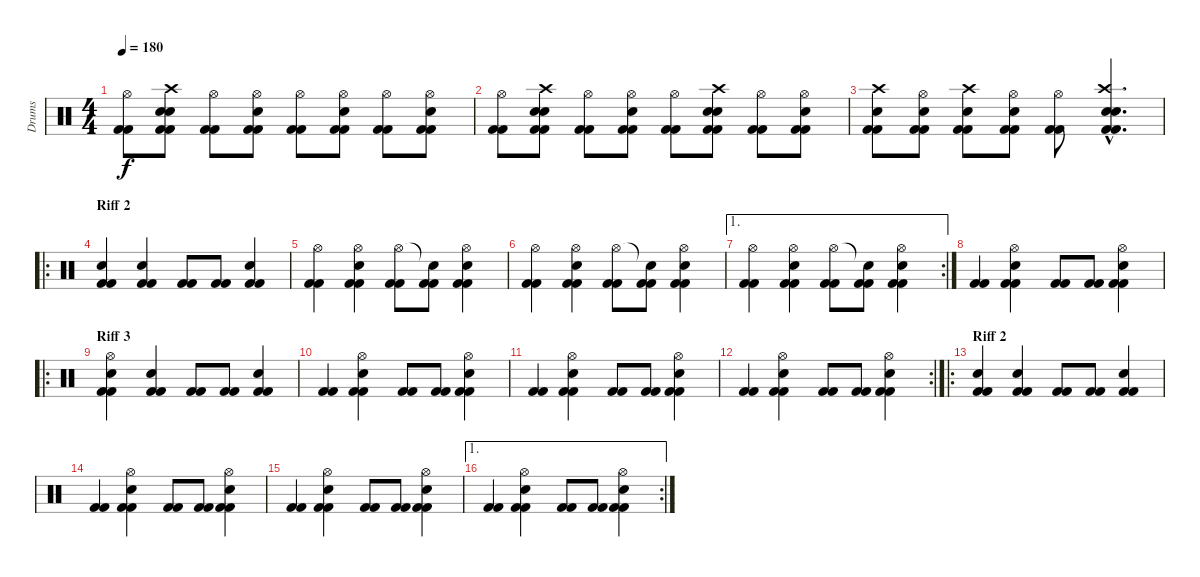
\track ("Drums" "Drums") {instrument percussion}
\staff {score}
\articulation defaults
\ts (4 4)
\tempo 180
\clef neutral
\ks c
("Hi-Hat (open)" "Kick (hit) 2" "Kick (hit) 2").8{dy f} ("Crash high (hit)" "Snare (hit) 2" "Snare (hit)" "Kick (hit) 2" "Kick (hit) 2").8 ("Hi-Hat (open)" "Kick (hit) 2" "Kick (hit) 2").8 ("Hi-Hat (open)" "Snare (hit) 2" "Kick (hit) 2" "Kick (hit) 2").8 ("Hi-Hat (open)" "Kick (hit) 2" "Kick (hit) 2").8 ("Hi-Hat (open)" "Snare (hit) 2" "Kick (hit) 2" "Kick (hit) 2").8 ("Hi-Hat (open)" "Kick (hit) 2" "Kick (hit) 2").8 ("Hi-Hat (open)" "Snare (hit) 2" "Kick (hit) 2" "Kick (hit) 2").8 |
("Hi-Hat (open)" "Kick (hit) 2" "Kick (hit) 2").8 ("Crash high (hit)" "Snare (hit) 2" "Snare (hit)" "Kick (hit) 2" "Kick (hit) 2").8 ("Hi-Hat (open)" "Kick (hit) 2" "Kick (hit) 2").8 ("Hi-Hat (open)" "Snare (hit) 2" "Kick (hit) 2" "Kick (hit) 2").8 ("Hi-Hat (open)" "Kick (hit) 2" "Kick (hit) 2").8 ("Crash high (hit)" "Snare (hit) 2" "Snare (hit)" "Kick (hit) 2" "Kick (hit) 2").8 ("Hi-Hat (open)" "Kick (hit) 2" "Kick (hit) 2").8 ("Hi-Hat (open)" "Snare (hit) 2" "Kick (hit) 2" "Kick (hit) 2").8 |
("Crash high (hit)" "Snare (hit)" "Kick (hit) 2" "Kick (hit) 2").8 ("Hi-Hat (open)" "Snare (hit) 2" "Kick (hit) 2" "Kick (hit) 2").8 ("Crash high (hit)" "Snare (hit)" "Kick (hit) 2" "Kick (hit) 2").8 ("Hi-Hat (open)" "Snare (hit) 2" "Kick (hit) 2" "Kick (hit) 2").8 ("Hi-Hat (open)" "Kick (hit) 2" "Kick (hit) 2").8 ("Crash high (hit)"{hac} "Snare (hit) 2"{hac} "Snare (hit)"{hac} "Kick (hit) 2"{hac} "Kick (hit) 2"{hac}).4{d} |
\ro
\section ("" "Riff 2")
("Electric Snare (hit)" "Kick (hit) 2" "Kick (hit) 2").4 ("Snare (hit) 2" "Kick (hit) 2" "Kick (hit) 2").4 ("Kick (hit) 2" "Kick (hit) 2").8 ("Kick (hit) 2" "Kick (hit) 2").8 ("Snare (hit) 2" "Kick (hit) 2" "Kick (hit) 2").4 |
("Hi-Hat (open)" "Kick (hit) 2" "Kick (hit) 2").4 ("Hi-Hat (open)" "Snare (hit) 2" "Kick (hit) 2" "Kick (hit) 2").4 ("Hi-Hat (open)" "Kick (hit) 2" "Kick (hit) 2").8 ("Snare (hit)"{t} "Kick (hit) 2" "Kick (hit) 2").8 ("Hi-Hat (open)" "Snare (hit) 2" "Kick (hit) 2" "Kick (hit) 2").4 |
("Hi-Hat (open)" "Kick (hit) 2" "Kick (hit) 2").4 ("Hi-Hat (open)" "Snare (hit) 2" "Kick (hit) 2" "Kick (hit) 2").4 ("Hi-Hat (open)" "Kick (hit) 2" "Kick (hit) 2").8 ("Snare (hit)"{t} "Kick (hit) 2" "Kick (hit) 2").8 ("Hi-Hat (open)" "Snare (hit) 2" "Kick (hit) 2" "Kick (hit) 2").4 |
\ae 1
\rc 2
("Hi-Hat (open)" "Kick (hit) 2" "Kick (hit) 2").4 ("Hi-Hat (open)" "Snare (hit) 2" "Kick (hit) 2" "Kick (hit) 2").4 ("Hi-Hat (open)" "Kick (hit) 2" "Kick (hit) 2").8 ("Snare (hit)"{t} "Kick (hit) 2" "Kick (hit) 2").8 ("Hi-Hat (open)" "Snare (hit) 2" "Kick (hit) 2" "Kick (hit) 2").4 |
("Kick (hit) 2" "Kick (hit) 2").4 ("Hi-Hat (open)" "Snare (hit) 2" "Kick (hit) 2" "Kick (hit) 2").4 ("Kick (hit) 2" "Kick (hit) 2").8 ("Kick (hit) 2" "Kick (hit) 2").8 ("Hi-Hat (open)" "Snare (hit) 2" "Kick (hit) 2" "Kick (hit) 2").4 |
\ro
\section ("" "Riff 3")
("Hi-Hat (open)" "Snare (hit) 2" "Kick (hit) 2" "Kick (hit) 2").4 ("Electric Snare (hit)" "Kick (hit) 2" "Kick (hit) 2").4 ("Kick (hit) 2" "Kick (hit) 2").8 ("Kick (hit) 2" "Kick (hit) 2").8 ("Snare (hit) 2" "Kick (hit) 2" "Kick (hit) 2").4 |
("Kick (hit) 2" "Kick (hit) 2").4 ("Hi-Hat (open)" "Snare (hit) 2" "Kick (hit) 2" "Kick (hit) 2").4 ("Kick (hit) 2" "Kick (hit) 2").8 ("Kick (hit) 2" "Kick (hit) 2").8 ("Hi-Hat (open)" "Snare (hit) 2" "Kick (hit) 2" "Kick (hit) 2").4 |
("Kick (hit) 2" "Kick (hit) 2").4 ("Hi-Hat (open)" "Snare (hit) 2" "Kick (hit) 2" "Kick (hit) 2").4 ("Kick (hit) 2" "Kick (hit) 2").8 ("Kick (hit) 2" "Kick (hit) 2").8 ("Hi-Hat (open)" "Snare (hit) 2" "Kick (hit) 2" "Kick (hit) 2").4 |
\rc 2
("Kick (hit) 2" "Kick (hit) 2").4 ("Hi-Hat (open)" "Snare (hit) 2" "Kick (hit) 2" "Kick (hit) 2").4 ("Kick (hit) 2" "Kick (hit) 2").8 ("Kick (hit) 2" "Kick (hit) 2").8 ("Hi-Hat (open)" "Snare (hit) 2" "Kick (hit) 2" "Kick (hit) 2").4 |
\ro
\section ("" "Riff 2")
("Electric Snare (hit)" "Kick (hit) 2" "Kick (hit) 2").4 ("Snare (hit) 2" "Kick (hit) 2" "Kick (hit) 2").4 ("Kick (hit) 2" "Kick (hit) 2").8 ("Kick (hit) 2" "Kick (hit) 2").8 ("Snare (hit) 2" "Kick (hit) 2" "Kick (hit) 2").4 |
("Kick (hit) 2" "Kick (hit) 2").4 ("Hi-Hat (open)" "Snare (hit) 2" "Kick (hit) 2" "Kick (hit) 2").4 ("Kick (hit) 2" "Kick (hit) 2").8 ("Kick (hit) 2" "Kick (hit) 2").8 ("Hi-Hat (open)" "Snare (hit) 2" "Kick (hit) 2" "Kick (hit) 2").4 |
("Kick (hit) 2" "Kick (hit) 2").4 ("Hi-Hat (open)" "Snare (hit) 2" "Kick (hit) 2" "Kick (hit) 2").4 ("Kick (hit) 2" "Kick (hit) 2").8 ("Kick (hit) 2" "Kick (hit) 2").8 ("Hi-Hat (open)" "Snare (hit) 2" "Kick (hit) 2" "Kick (hit) 2").4 |
\ae 1
\rc 2
("Kick (hit) 2" "Kick (hit) 2").4 ("Hi-Hat (open)" "Snare (hit) 2" "Kick (hit) 2" "Kick (hit) 2").4 ("Kick (hit) 2" "Kick (hit) 2").8 ("Kick (hit) 2" "Kick (hit) 2").8 ("Hi-Hat (open)" "Snare (hit) 2" "Kick (hit) 2" "Kick (hit) 2").4
